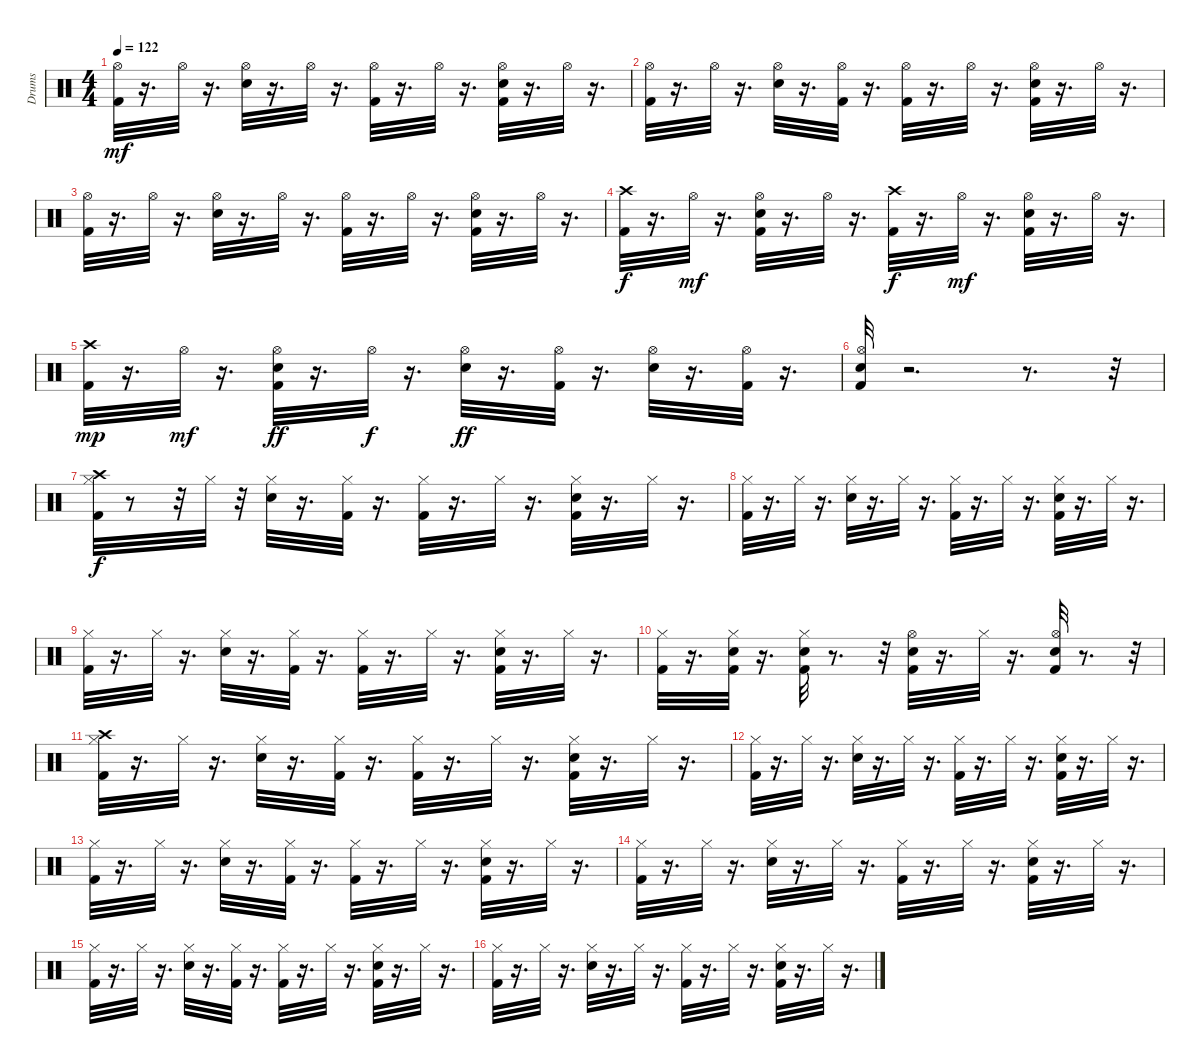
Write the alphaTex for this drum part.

\track ("Drums" "Drums") {instrument percussion}
\staff {score}
\articulation defaults
\ts (4 4)
\tempo 122
\clef neutral
\ks c
("Kick (hit) 2" "Hi-Hat (open)").32{dy mf} r.16{d} "Hi-Hat (open)".32 r.16{d} ("Snare (hit) 2" "Hi-Hat (open)").32 r.16{d} "Hi-Hat (open)".32 r.16{d} ("Kick (hit) 2" "Hi-Hat (open)").32 r.16{d} "Hi-Hat (open)".32 r.16{d} ("Kick (hit) 2" "Snare (hit) 2" "Hi-Hat (open)").32 r.16{d} "Hi-Hat (open)".32 r.16{d} |
("Kick (hit) 2" "Hi-Hat (open)").32 r.16{d} "Hi-Hat (open)".32 r.16{d} ("Snare (hit) 2" "Hi-Hat (open)").32 r.16{d} ("Kick (hit) 2" "Hi-Hat (open)").32 r.16{d} ("Kick (hit) 2" "Hi-Hat (open)").32 r.16{d} "Hi-Hat (open)".32 r.16{d} ("Kick (hit) 2" "Snare (hit) 2" "Hi-Hat (open)").32 r.16{d} "Hi-Hat (open)".32 r.16{d} |
("Kick (hit) 2" "Hi-Hat (open)").32 r.16{d} "Hi-Hat (open)".32 r.16{d} ("Snare (hit) 2" "Hi-Hat (open)").32 r.16{d} "Hi-Hat (open)".32 r.16{d} ("Kick (hit) 2" "Hi-Hat (open)").32 r.16{d} "Hi-Hat (open)".32 r.16{d} ("Kick (hit) 2" "Snare (hit) 2" "Hi-Hat (open)").32 r.16{d} "Hi-Hat (open)".32 r.16{d} |
("Kick (hit) 2" "Crash high (hit)").32{dy f} r.16{d} "Hi-Hat (open)".32{dy mf} r.16{d} ("Kick (hit) 2" "Snare (hit) 2" "Hi-Hat (open)").32 r.16{d} "Hi-Hat (open)".32 r.16{d} ("Kick (hit) 2" "Crash high (hit)").32{dy f} r.16{d} "Hi-Hat (open)".32{dy mf} r.16{d} ("Kick (hit) 2" "Snare (hit) 2" "Hi-Hat (open)").32 r.16{d} "Hi-Hat (open)".32 r.16{d} |
("Kick (hit) 2" "Crash high (hit)").32{dy mp} r.16{d} "Hi-Hat (open)".32{dy mf} r.16{d} ("Kick (hit) 2" "Snare (hit) 2" "Hi-Hat (open)").32{dy ff} r.16{d} "Hi-Hat (open)".32{dy f} r.16{d} ("Snare (hit) 2" "Hi-Hat (open)").32{dy ff} r.16{d} ("Kick (hit) 2" "Hi-Hat (open)").32 r.16{d} ("Snare (hit) 2" "Hi-Hat (open)").32 r.16{d} ("Kick (hit) 2" "Hi-Hat (open)").32 r.16{d} |
("Kick (hit) 2" "Snare (hit) 2" "Hi-Hat (open)").32 r.2{d} r.8{d} r.32 |
("Kick (hit) 2" "Hi-Hat (closed)" "Crash high (hit)").32{dy f} r.8 r.32 "Hi-Hat (closed)".32 r.32 ("Snare (hit) 2" "Hi-Hat (closed)").32 r.16{d} ("Kick (hit) 2" "Hi-Hat (closed)").32 r.16{d} ("Kick (hit) 2" "Hi-Hat (closed)").32 r.16{d} "Hi-Hat (closed)".32 r.16{d} ("Kick (hit) 2" "Snare (hit) 2" "Hi-Hat (closed)").32 r.16{d} "Hi-Hat (closed)".32 r.16{d} |
("Kick (hit) 2" "Hi-Hat (closed)").32 r.16{d} "Hi-Hat (closed)".32 r.16{d} ("Snare (hit) 2" "Hi-Hat (closed)").32 r.16{d} "Hi-Hat (closed)".32 r.16{d} ("Kick (hit) 2" "Hi-Hat (closed)").32 r.16{d} "Hi-Hat (closed)".32 r.16{d} ("Kick (hit) 2" "Snare (hit) 2" "Hi-Hat (closed)").32 r.16{d} "Hi-Hat (closed)".32 r.16{d} |
("Kick (hit) 2" "Hi-Hat (closed)").32 r.16{d} "Hi-Hat (closed)".32 r.16{d} ("Snare (hit) 2" "Hi-Hat (closed)").32 r.16{d} ("Kick (hit) 2" "Hi-Hat (closed)").32 r.16{d} ("Kick (hit) 2" "Hi-Hat (closed)").32 r.16{d} "Hi-Hat (closed)".32 r.16{d} ("Kick (hit) 2" "Snare (hit) 2" "Hi-Hat (closed)").32 r.16{d} "Hi-Hat (closed)".32 r.16{d} |
("Kick (hit) 2" "Hi-Hat (closed)").32 r.16{d} ("Kick (hit) 2" "Snare (hit) 2" "Hi-Hat (closed)").32 r.16{d} ("Kick (hit) 2" "Snare (hit) 2" "Hi-Hat (closed)").32 r.8{d} r.32 ("Kick (hit) 2" "Snare (hit) 2" "Hi-Hat (open)").32 r.16{d} "Hi-Hat (closed)".32 r.16{d} ("Kick (hit) 2" "Snare (hit) 2" "Hi-Hat (open)").32 r.8{d} r.32 |
("Kick (hit) 2" "Hi-Hat (closed)" "Crash high (hit)").32 r.16{d} "Hi-Hat (closed)".32 r.16{d} ("Snare (hit) 2" "Hi-Hat (closed)").32 r.16{d} ("Kick (hit) 2" "Hi-Hat (closed)").32 r.16{d} ("Kick (hit) 2" "Hi-Hat (closed)").32 r.16{d} "Hi-Hat (closed)".32 r.16{d} ("Kick (hit) 2" "Snare (hit) 2" "Hi-Hat (closed)").32 r.16{d} "Hi-Hat (closed)".32 r.16{d} |
("Kick (hit) 2" "Hi-Hat (closed)").32 r.16{d} "Hi-Hat (closed)".32 r.16{d} ("Snare (hit) 2" "Hi-Hat (closed)").32 r.16{d} "Hi-Hat (closed)".32 r.16{d} ("Kick (hit) 2" "Hi-Hat (closed)").32 r.16{d} "Hi-Hat (closed)".32 r.16{d} ("Kick (hit) 2" "Snare (hit) 2" "Hi-Hat (closed)").32 r.16{d} "Hi-Hat (closed)".32 r.16{d} |
("Kick (hit) 2" "Hi-Hat (closed)").32 r.16{d} "Hi-Hat (closed)".32 r.16{d} ("Snare (hit) 2" "Hi-Hat (closed)").32 r.16{d} ("Kick (hit) 2" "Hi-Hat (closed)").32 r.16{d} ("Kick (hit) 2" "Hi-Hat (closed)").32 r.16{d} "Hi-Hat (closed)".32 r.16{d} ("Kick (hit) 2" "Snare (hit) 2" "Hi-Hat (closed)").32 r.16{d} "Hi-Hat (closed)".32 r.16{d} |
("Kick (hit) 2" "Hi-Hat (closed)").32 r.16{d} "Hi-Hat (closed)".32 r.16{d} ("Snare (hit) 2" "Hi-Hat (closed)").32 r.16{d} "Hi-Hat (closed)".32 r.16{d} ("Kick (hit) 2" "Hi-Hat (closed)").32 r.16{d} "Hi-Hat (closed)".32 r.16{d} ("Kick (hit) 2" "Snare (hit) 2" "Hi-Hat (closed)").32 r.16{d} "Hi-Hat (closed)".32 r.16{d} |
("Kick (hit) 2" "Hi-Hat (closed)").32 r.16{d} "Hi-Hat (closed)".32 r.16{d} ("Snare (hit) 2" "Hi-Hat (closed)").32 r.16{d} ("Kick (hit) 2" "Hi-Hat (closed)").32 r.16{d} ("Kick (hit) 2" "Hi-Hat (closed)").32 r.16{d} "Hi-Hat (closed)".32 r.16{d} ("Kick (hit) 2" "Snare (hit) 2" "Hi-Hat (closed)").32 r.16{d} "Hi-Hat (closed)".32 r.16{d} |
("Kick (hit) 2" "Hi-Hat (closed)").32 r.16{d} "Hi-Hat (closed)".32 r.16{d} ("Snare (hit) 2" "Hi-Hat (closed)").32 r.16{d} "Hi-Hat (closed)".32 r.16{d} ("Kick (hit) 2" "Hi-Hat (closed)").32 r.16{d} "Hi-Hat (closed)".32 r.16{d} ("Kick (hit) 2" "Snare (hit) 2" "Hi-Hat (closed)").32 r.16{d} "Hi-Hat (closed)".32 r.16{d}
